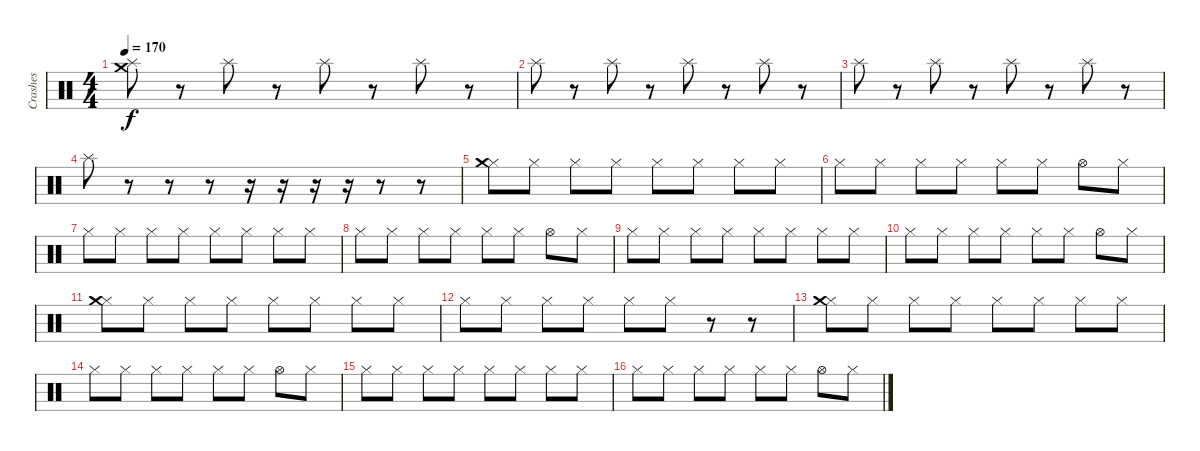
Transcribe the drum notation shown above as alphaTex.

\track ("Crashes" "Crashes") {instrument percussion}
\staff {score}
\articulation defaults
\ts (4 4)
\tempo 170
\clef neutral
\ks c
("Crash medium (hit)" "Splash (hit)").8{dy f} r.8 "Splash (hit)".8 r.8 "Splash (hit)".8 r.8 "Splash (hit)".8 r.8 |
"Splash (hit)".8 r.8 "Splash (hit)".8 r.8 "Splash (hit)".8 r.8 "Splash (hit)".8 r.8 |
"Splash (hit)".8 r.8 "Splash (hit)".8 r.8 "Splash (hit)".8 r.8 "Splash (hit)".8 r.8 |
"Splash (hit)".8 r.8 r.8 r.8 r.16 r.16 r.16 r.16 r.8 r.8 |
("Hi-Hat (closed)" "Crash medium (hit)").8 "Hi-Hat (closed)".8 "Hi-Hat (closed)".8 "Hi-Hat (closed)".8 "Hi-Hat (closed)".8 "Hi-Hat (closed)".8 "Hi-Hat (closed)".8 "Hi-Hat (closed)".8 |
"Hi-Hat (closed)".8 "Hi-Hat (closed)".8 "Hi-Hat (closed)".8 "Hi-Hat (closed)".8 "Hi-Hat (closed)".8 "Hi-Hat (closed)".8 "Hi-Hat (open)".8 "Hi-Hat (closed)".8 |
"Hi-Hat (closed)".8 "Hi-Hat (closed)".8 "Hi-Hat (closed)".8 "Hi-Hat (closed)".8 "Hi-Hat (closed)".8 "Hi-Hat (closed)".8 "Hi-Hat (closed)".8 "Hi-Hat (closed)".8 |
"Hi-Hat (closed)".8 "Hi-Hat (closed)".8 "Hi-Hat (closed)".8 "Hi-Hat (closed)".8 "Hi-Hat (closed)".8 "Hi-Hat (closed)".8 "Hi-Hat (open)".8 "Hi-Hat (closed)".8 |
"Hi-Hat (closed)".8 "Hi-Hat (closed)".8 "Hi-Hat (closed)".8 "Hi-Hat (closed)".8 "Hi-Hat (closed)".8 "Hi-Hat (closed)".8 "Hi-Hat (closed)".8 "Hi-Hat (closed)".8 |
"Hi-Hat (closed)".8 "Hi-Hat (closed)".8 "Hi-Hat (closed)".8 "Hi-Hat (closed)".8 "Hi-Hat (closed)".8 "Hi-Hat (closed)".8 "Hi-Hat (open)".8 "Hi-Hat (closed)".8 |
("Hi-Hat (closed)" "Crash medium (hit)").8 "Hi-Hat (closed)".8 "Hi-Hat (closed)".8 "Hi-Hat (closed)".8 "Hi-Hat (closed)".8 "Hi-Hat (closed)".8 "Hi-Hat (closed)".8 "Hi-Hat (closed)".8 |
"Hi-Hat (closed)".8 "Hi-Hat (closed)".8 "Hi-Hat (closed)".8 "Hi-Hat (closed)".8 "Hi-Hat (closed)".8 "Hi-Hat (closed)".8 r.8 r.8 |
("Hi-Hat (closed)" "Crash medium (hit)").8 "Hi-Hat (closed)".8 "Hi-Hat (closed)".8 "Hi-Hat (closed)".8 "Hi-Hat (closed)".8 "Hi-Hat (closed)".8 "Hi-Hat (closed)".8 "Hi-Hat (closed)".8 |
"Hi-Hat (closed)".8 "Hi-Hat (closed)".8 "Hi-Hat (closed)".8 "Hi-Hat (closed)".8 "Hi-Hat (closed)".8 "Hi-Hat (closed)".8 "Hi-Hat (open)".8 "Hi-Hat (closed)".8 |
"Hi-Hat (closed)".8 "Hi-Hat (closed)".8 "Hi-Hat (closed)".8 "Hi-Hat (closed)".8 "Hi-Hat (closed)".8 "Hi-Hat (closed)".8 "Hi-Hat (closed)".8 "Hi-Hat (closed)".8 |
"Hi-Hat (closed)".8 "Hi-Hat (closed)".8 "Hi-Hat (closed)".8 "Hi-Hat (closed)".8 "Hi-Hat (closed)".8 "Hi-Hat (closed)".8 "Hi-Hat (open)".8 "Hi-Hat (closed)".8
